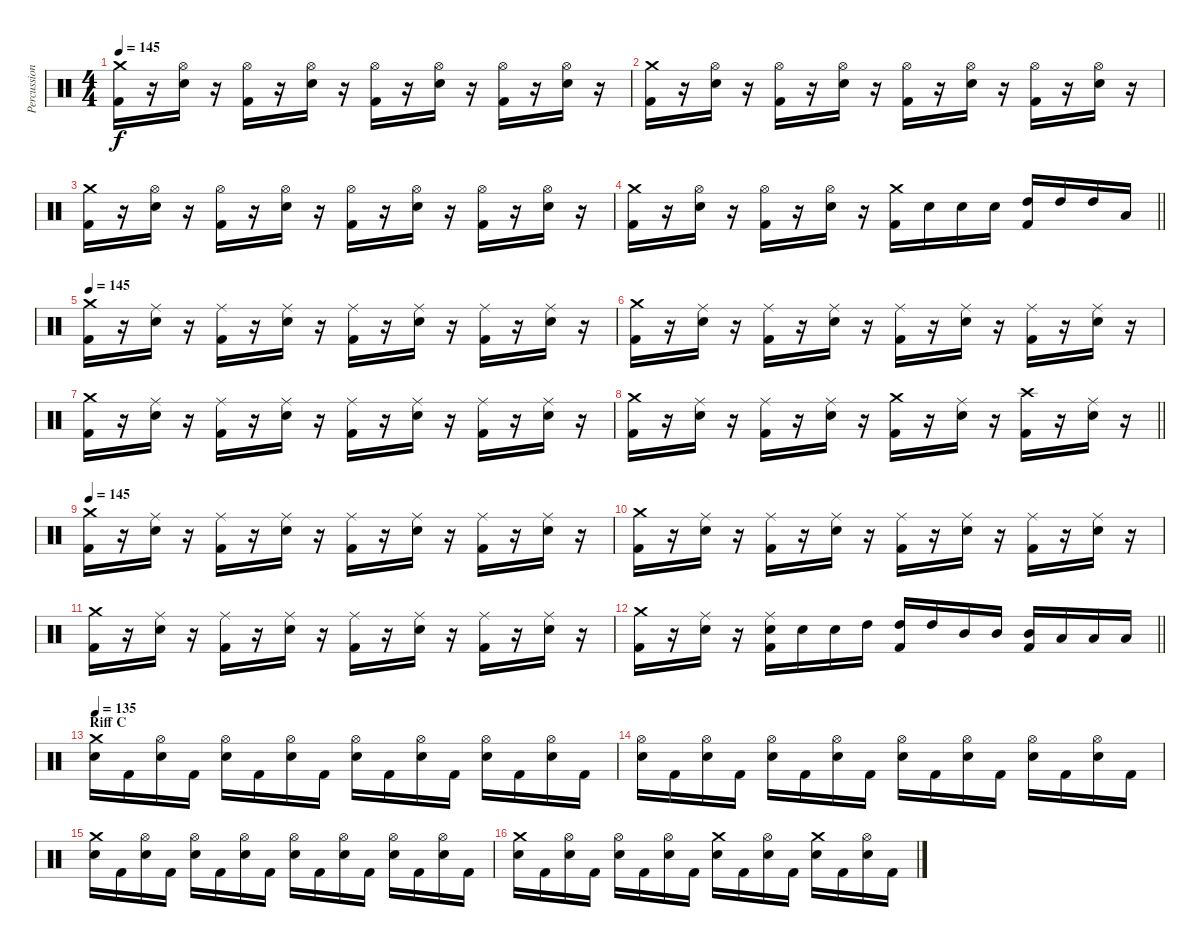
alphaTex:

\track ("Percussion" "Percussion") {instrument percussion}
\staff {score}
\articulation defaults
\ts (4 4)
\tempo 145
\clef neutral
\ks c
("Crash medium (hit)" "Kick (hit) 2").16{dy f} r.16 ("Hi-Hat (open)" "Snare (hit) 2").16 r.16 ("Hi-Hat (open)" "Kick (hit) 2").16 r.16 ("Hi-Hat (open)" "Snare (hit) 2").16 r.16 ("Hi-Hat (open)" "Kick (hit) 2").16 r.16 ("Hi-Hat (open)" "Snare (hit) 2").16 r.16 ("Hi-Hat (open)" "Kick (hit) 2").16 r.16 ("Hi-Hat (open)" "Snare (hit) 2").16 r.16 |
("Crash medium (hit)" "Kick (hit) 2").16 r.16 ("Hi-Hat (open)" "Snare (hit) 2").16 r.16 ("Hi-Hat (open)" "Kick (hit) 2").16 r.16 ("Hi-Hat (open)" "Snare (hit) 2").16 r.16 ("Hi-Hat (open)" "Kick (hit) 2").16 r.16 ("Hi-Hat (open)" "Snare (hit) 2").16 r.16 ("Hi-Hat (open)" "Kick (hit) 2").16 r.16 ("Hi-Hat (open)" "Snare (hit) 2").16 r.16 |
("Crash medium (hit)" "Kick (hit) 2").16 r.16 ("Hi-Hat (open)" "Snare (hit) 2").16 r.16 ("Hi-Hat (open)" "Kick (hit) 2").16 r.16 ("Hi-Hat (open)" "Snare (hit) 2").16 r.16 ("Hi-Hat (open)" "Kick (hit) 2").16 r.16 ("Hi-Hat (open)" "Snare (hit) 2").16 r.16 ("Hi-Hat (open)" "Kick (hit) 2").16 r.16 ("Hi-Hat (open)" "Snare (hit) 2").16 r.16 |
\barLineRight lightlight
("Crash medium (hit)" "Kick (hit) 2").16 r.16 ("Hi-Hat (open)" "Snare (hit) 2").16 r.16 ("Hi-Hat (open)" "Kick (hit) 2").16 r.16 ("Hi-Hat (open)" "Snare (hit) 2").16 r.16 ("Crash medium (hit)" "Kick (hit) 2").16 "Snare (hit) 2".16 "Snare (hit) 2".16 "Snare (hit) 2".16 ("High Tom (hit)" "Kick (hit) 2").16 "High Tom (hit)".16 "High Tom (hit)".16 "Low Tom (hit)".16 |
\tempo 145
("Crash medium (hit)" "Kick (hit) 2").16 r.16 ("Ride (middle)" "Snare (hit) 2").16 r.16 ("Ride (middle)" "Kick (hit) 2").16 r.16 ("Ride (middle)" "Snare (hit) 2").16 r.16 ("Ride (middle)" "Kick (hit) 2").16 r.16 ("Ride (middle)" "Snare (hit) 2").16 r.16 ("Ride (middle)" "Kick (hit) 2").16 r.16 ("Ride (middle)" "Snare (hit) 2").16 r.16 |
("Crash medium (hit)" "Kick (hit) 2").16 r.16 ("Ride (middle)" "Snare (hit) 2").16 r.16 ("Ride (middle)" "Kick (hit) 2").16 r.16 ("Ride (middle)" "Snare (hit) 2").16 r.16 ("Ride (middle)" "Kick (hit) 2").16 r.16 ("Ride (middle)" "Snare (hit) 2").16 r.16 ("Ride (middle)" "Kick (hit) 2").16 r.16 ("Ride (middle)" "Snare (hit) 2").16 r.16 |
("Crash medium (hit)" "Kick (hit) 2").16 r.16 ("Ride (middle)" "Snare (hit) 2").16 r.16 ("Ride (middle)" "Kick (hit) 2").16 r.16 ("Ride (middle)" "Snare (hit) 2").16 r.16 ("Ride (middle)" "Kick (hit) 2").16 r.16 ("Ride (middle)" "Snare (hit) 2").16 r.16 ("Ride (middle)" "Kick (hit) 2").16 r.16 ("Ride (middle)" "Snare (hit) 2").16 r.16 |
\barLineRight lightlight
("Crash medium (hit)" "Kick (hit) 2").16 r.16 ("Ride (middle)" "Snare (hit) 2").16 r.16 ("Ride (middle)" "Kick (hit) 2").16 r.16 ("Ride (middle)" "Snare (hit) 2").16 r.16 ("Crash medium (hit)" "Kick (hit) 2").16 r.16 ("Ride (middle)" "Snare (hit) 2").16 r.16 ("Crash high (hit)" "Kick (hit) 2").16 r.16 ("Ride (middle)" "Snare (hit) 2").16 r.16 |
\tempo 145
("Crash medium (hit)" "Kick (hit) 2").16 r.16 ("Ride (middle)" "Snare (hit) 2").16 r.16 ("Ride (middle)" "Kick (hit) 2").16 r.16 ("Ride (middle)" "Snare (hit) 2").16 r.16 ("Ride (middle)" "Kick (hit) 2").16 r.16 ("Ride (middle)" "Snare (hit) 2").16 r.16 ("Ride (middle)" "Kick (hit) 2").16 r.16 ("Ride (middle)" "Snare (hit) 2").16 r.16 |
("Crash medium (hit)" "Kick (hit) 2").16 r.16 ("Ride (middle)" "Snare (hit) 2").16 r.16 ("Ride (middle)" "Kick (hit) 2").16 r.16 ("Ride (middle)" "Snare (hit) 2").16 r.16 ("Ride (middle)" "Kick (hit) 2").16 r.16 ("Ride (middle)" "Snare (hit) 2").16 r.16 ("Ride (middle)" "Kick (hit) 2").16 r.16 ("Ride (middle)" "Snare (hit) 2").16 r.16 |
("Crash medium (hit)" "Kick (hit) 2").16 r.16 ("Ride (middle)" "Snare (hit) 2").16 r.16 ("Ride (middle)" "Kick (hit) 2").16 r.16 ("Ride (middle)" "Snare (hit) 2").16 r.16 ("Ride (middle)" "Kick (hit) 2").16 r.16 ("Ride (middle)" "Snare (hit) 2").16 r.16 ("Ride (middle)" "Kick (hit) 2").16 r.16 ("Ride (middle)" "Snare (hit) 2").16 r.16 |
\barLineRight lightlight
("Crash medium (hit)" "Kick (hit) 2").16 r.16 ("Ride (middle)" "Snare (hit) 2").16 r.16 ("Ride (middle)" "Snare (hit) 2" "Kick (hit) 2").16 "Snare (hit) 2".16 "Snare (hit) 2".16 "High Tom (hit)".16 ("High Tom (hit)" "Kick (hit) 2").16 "High Tom (hit)".16 "Mid Tom (hit)".16 "Mid Tom (hit)".16 ("Mid Tom (hit)" "Kick (hit) 2").16 "Low Tom (hit)".16 "Low Tom (hit)".16 "Low Tom (hit)".16 |
\section ("" "Riff C")
\tempo 135
("Crash medium (hit)" "Snare (hit) 2").16 "Kick (hit) 2".16 ("Hi-Hat (open)" "Snare (hit) 2").16 "Kick (hit) 2".16 ("Hi-Hat (open)" "Snare (hit) 2").16 "Kick (hit) 2".16 ("Hi-Hat (open)" "Snare (hit) 2").16 "Kick (hit) 2".16 ("Hi-Hat (open)" "Snare (hit) 2").16 "Kick (hit) 2".16 ("Hi-Hat (open)" "Snare (hit) 2").16 "Kick (hit) 2".16 ("Hi-Hat (open)" "Snare (hit) 2").16 "Kick (hit) 2".16 ("Hi-Hat (open)" "Snare (hit) 2").16 "Kick (hit) 2".16 |
("Hi-Hat (open)" "Snare (hit) 2").16 "Kick (hit) 2".16 ("Hi-Hat (open)" "Snare (hit) 2").16 "Kick (hit) 2".16 ("Hi-Hat (open)" "Snare (hit) 2").16 "Kick (hit) 2".16 ("Hi-Hat (open)" "Snare (hit) 2").16 "Kick (hit) 2".16 ("Hi-Hat (open)" "Snare (hit) 2").16 "Kick (hit) 2".16 ("Hi-Hat (open)" "Snare (hit) 2").16 "Kick (hit) 2".16 ("Hi-Hat (open)" "Snare (hit) 2").16 "Kick (hit) 2".16 ("Hi-Hat (open)" "Snare (hit) 2").16 "Kick (hit) 2".16 |
("Crash medium (hit)" "Snare (hit) 2").16 "Kick (hit) 2".16 ("Hi-Hat (open)" "Snare (hit) 2").16 "Kick (hit) 2".16 ("Hi-Hat (open)" "Snare (hit) 2").16 "Kick (hit) 2".16 ("Hi-Hat (open)" "Snare (hit) 2").16 "Kick (hit) 2".16 ("Hi-Hat (open)" "Snare (hit) 2").16 "Kick (hit) 2".16 ("Hi-Hat (open)" "Snare (hit) 2").16 "Kick (hit) 2".16 ("Hi-Hat (open)" "Snare (hit) 2").16 "Kick (hit) 2".16 ("Hi-Hat (open)" "Snare (hit) 2").16 "Kick (hit) 2".16 |
("Crash medium (hit)" "Snare (hit) 2").16 "Kick (hit) 2".16 ("Hi-Hat (open)" "Snare (hit) 2").16 "Kick (hit) 2".16 ("Hi-Hat (open)" "Snare (hit) 2").16 "Kick (hit) 2".16 ("Hi-Hat (open)" "Snare (hit) 2").16 "Kick (hit) 2".16 ("Crash medium (hit)" "Snare (hit) 2").16 "Kick (hit) 2".16 ("Hi-Hat (open)" "Snare (hit) 2").16 "Kick (hit) 2".16 ("Crash medium (hit)" "Snare (hit) 2").16 "Kick (hit) 2".16 ("Hi-Hat (open)" "Snare (hit) 2").16 "Kick (hit) 2".16
